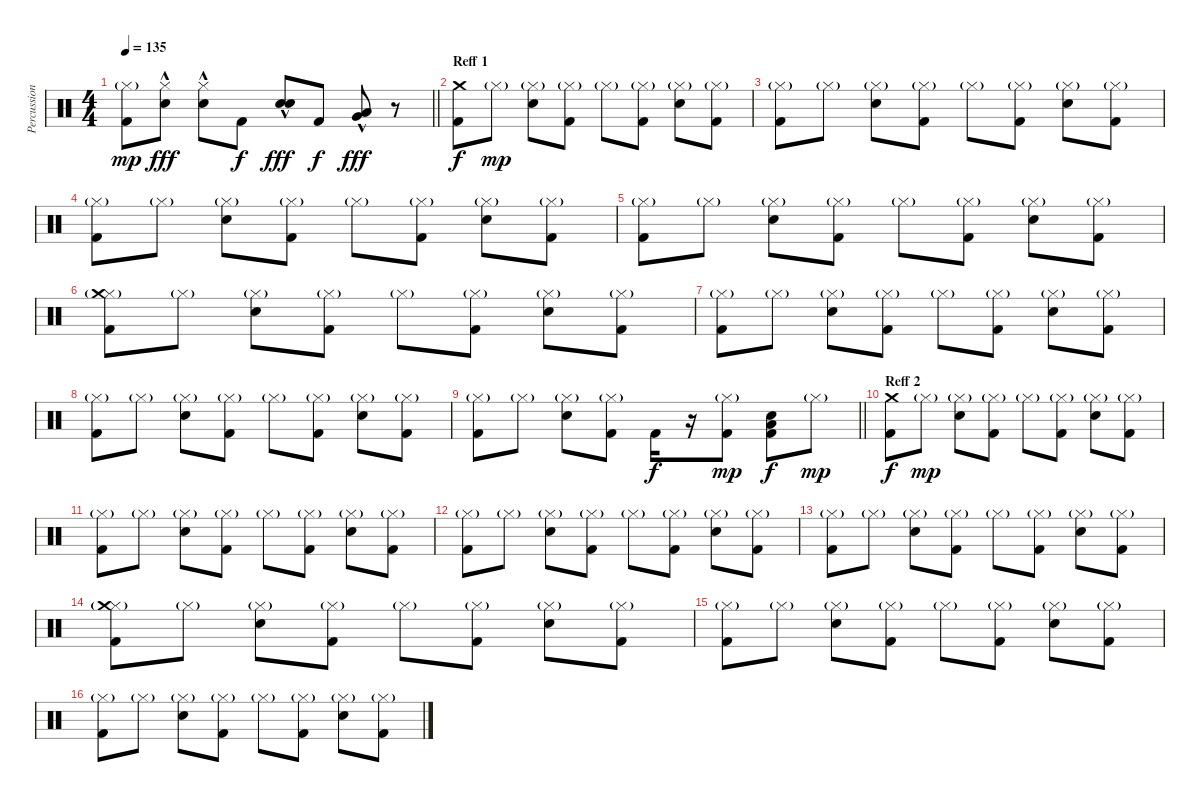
\track ("Percussion 1" "Percussion") {instrument percussion}
\staff {score}
\articulation defaults
\ts (4 4)
\tempo 135
\clef neutral
\barLineRight lightlight
\ks c
("Hi-Hat (closed)"{g} "Kick (hit) 2").8{dy mp} ("Hi-Hat (closed)" "Electric Snare (hit)"{hac}).8{dy fff} ("Hi-Hat (closed)" "Electric Snare (hit)"{hac}).8 "Kick (hit) 2".8{dy f} ("Electric Snare (hit)"{hac} "Electric Snare (hit)"{hac}).8{bd 240 dy fff} "Kick (hit) 2".8{dy f} ("Very Low Tom (hit)"{hac} "Low Tom (hit)"{hac}).8{bd 120 dy fff} r.8 |
\section ("" "Reff 1")
("Crash medium (hit)" "Kick (hit) 2").8{dy f} "Hi-Hat (closed)"{g}.8{dy mp} ("Hi-Hat (closed)"{g} "Electric Snare (hit)").8 ("Hi-Hat (closed)"{g} "Kick (hit) 2").8 "Hi-Hat (closed)"{g}.8 ("Hi-Hat (closed)"{g} "Kick (hit) 2").8 ("Hi-Hat (closed)"{g} "Electric Snare (hit)").8 ("Hi-Hat (closed)"{g} "Kick (hit) 2").8 |
("Hi-Hat (closed)"{g} "Kick (hit) 2").8 "Hi-Hat (closed)"{g}.8 ("Hi-Hat (closed)"{g} "Electric Snare (hit)").8 ("Hi-Hat (closed)"{g} "Kick (hit) 2").8 "Hi-Hat (closed)"{g}.8 ("Hi-Hat (closed)"{g} "Kick (hit) 2").8 ("Hi-Hat (closed)"{g} "Electric Snare (hit)").8 ("Hi-Hat (closed)"{g} "Kick (hit) 2").8 |
("Hi-Hat (closed)"{g} "Kick (hit) 2").8 "Hi-Hat (closed)"{g}.8 ("Hi-Hat (closed)"{g} "Electric Snare (hit)").8 ("Hi-Hat (closed)"{g} "Kick (hit) 2").8 "Hi-Hat (closed)"{g}.8 ("Hi-Hat (closed)"{g} "Kick (hit) 2").8 ("Hi-Hat (closed)"{g} "Electric Snare (hit)").8 ("Hi-Hat (closed)"{g} "Kick (hit) 2").8 |
("Hi-Hat (closed)"{g} "Kick (hit) 2").8 "Hi-Hat (closed)"{g}.8 ("Hi-Hat (closed)"{g} "Electric Snare (hit)").8 ("Hi-Hat (closed)"{g} "Kick (hit) 2").8 "Hi-Hat (closed)"{g}.8 ("Hi-Hat (closed)"{g} "Kick (hit) 2").8 ("Hi-Hat (closed)"{g} "Electric Snare (hit)").8 ("Hi-Hat (closed)"{g} "Kick (hit) 2").8 |
("Hi-Hat (closed)"{g} "Crash medium (hit)" "Kick (hit) 2").8 "Hi-Hat (closed)"{g}.8 ("Hi-Hat (closed)"{g} "Electric Snare (hit)").8 ("Hi-Hat (closed)"{g} "Kick (hit) 2").8 "Hi-Hat (closed)"{g}.8 ("Hi-Hat (closed)"{g} "Kick (hit) 2").8 ("Hi-Hat (closed)"{g} "Electric Snare (hit)").8 ("Hi-Hat (closed)"{g} "Kick (hit) 2").8 |
("Hi-Hat (closed)"{g} "Kick (hit) 2").8 "Hi-Hat (closed)"{g}.8 ("Hi-Hat (closed)"{g} "Electric Snare (hit)").8 ("Hi-Hat (closed)"{g} "Kick (hit) 2").8 "Hi-Hat (closed)"{g}.8 ("Hi-Hat (closed)"{g} "Kick (hit) 2").8 ("Hi-Hat (closed)"{g} "Electric Snare (hit)").8 ("Hi-Hat (closed)"{g} "Kick (hit) 2").8 |
("Hi-Hat (closed)"{g} "Kick (hit) 2").8 "Hi-Hat (closed)"{g}.8 ("Hi-Hat (closed)"{g} "Electric Snare (hit)").8 ("Hi-Hat (closed)"{g} "Kick (hit) 2").8 "Hi-Hat (closed)"{g}.8 ("Hi-Hat (closed)"{g} "Kick (hit) 2").8 ("Hi-Hat (closed)"{g} "Electric Snare (hit)").8 ("Hi-Hat (closed)"{g} "Kick (hit) 2").8 |
\barLineRight lightlight
("Hi-Hat (closed)"{g} "Kick (hit) 2").8 "Hi-Hat (closed)"{g}.8 ("Hi-Hat (closed)"{g} "Electric Snare (hit)").8 ("Hi-Hat (closed)"{g} "Kick (hit) 2").8 "Kick (hit) 2".16{dy f} r.16 ("Hi-Hat (closed)"{g} "Kick (hit) 2").8{dy mp} ("Electric Snare (hit)" "Low Tom (hit)" "Kick (hit) 2").8{dy f} "Hi-Hat (closed)"{g}.8{dy mp} |
\section ("" "Reff 2")
("Crash medium (hit)" "Kick (hit) 2").8{dy f} "Hi-Hat (closed)"{g}.8{dy mp} ("Hi-Hat (closed)"{g} "Electric Snare (hit)").8 ("Hi-Hat (closed)"{g} "Kick (hit) 2").8 "Hi-Hat (closed)"{g}.8 ("Hi-Hat (closed)"{g} "Kick (hit) 2").8 ("Hi-Hat (closed)"{g} "Electric Snare (hit)").8 ("Hi-Hat (closed)"{g} "Kick (hit) 2").8 |
("Hi-Hat (closed)"{g} "Kick (hit) 2").8 "Hi-Hat (closed)"{g}.8 ("Hi-Hat (closed)"{g} "Electric Snare (hit)").8 ("Hi-Hat (closed)"{g} "Kick (hit) 2").8 "Hi-Hat (closed)"{g}.8 ("Hi-Hat (closed)"{g} "Kick (hit) 2").8 ("Hi-Hat (closed)"{g} "Electric Snare (hit)").8 ("Hi-Hat (closed)"{g} "Kick (hit) 2").8 |
("Hi-Hat (closed)"{g} "Kick (hit) 2").8 "Hi-Hat (closed)"{g}.8 ("Hi-Hat (closed)"{g} "Electric Snare (hit)").8 ("Hi-Hat (closed)"{g} "Kick (hit) 2").8 "Hi-Hat (closed)"{g}.8 ("Hi-Hat (closed)"{g} "Kick (hit) 2").8 ("Hi-Hat (closed)"{g} "Electric Snare (hit)").8 ("Hi-Hat (closed)"{g} "Kick (hit) 2").8 |
("Hi-Hat (closed)"{g} "Kick (hit) 2").8 "Hi-Hat (closed)"{g}.8 ("Hi-Hat (closed)"{g} "Electric Snare (hit)").8 ("Hi-Hat (closed)"{g} "Kick (hit) 2").8 "Hi-Hat (closed)"{g}.8 ("Hi-Hat (closed)"{g} "Kick (hit) 2").8 ("Hi-Hat (closed)"{g} "Electric Snare (hit)").8 ("Hi-Hat (closed)"{g} "Kick (hit) 2").8 |
("Hi-Hat (closed)"{g} "Crash medium (hit)" "Kick (hit) 2").8 "Hi-Hat (closed)"{g}.8 ("Hi-Hat (closed)"{g} "Electric Snare (hit)").8 ("Hi-Hat (closed)"{g} "Kick (hit) 2").8 "Hi-Hat (closed)"{g}.8 ("Hi-Hat (closed)"{g} "Kick (hit) 2").8 ("Hi-Hat (closed)"{g} "Electric Snare (hit)").8 ("Hi-Hat (closed)"{g} "Kick (hit) 2").8 |
("Hi-Hat (closed)"{g} "Kick (hit) 2").8 "Hi-Hat (closed)"{g}.8 ("Hi-Hat (closed)"{g} "Electric Snare (hit)").8 ("Hi-Hat (closed)"{g} "Kick (hit) 2").8 "Hi-Hat (closed)"{g}.8 ("Hi-Hat (closed)"{g} "Kick (hit) 2").8 ("Hi-Hat (closed)"{g} "Electric Snare (hit)").8 ("Hi-Hat (closed)"{g} "Kick (hit) 2").8 |
("Hi-Hat (closed)"{g} "Kick (hit) 2").8 "Hi-Hat (closed)"{g}.8 ("Hi-Hat (closed)"{g} "Electric Snare (hit)").8 ("Hi-Hat (closed)"{g} "Kick (hit) 2").8 "Hi-Hat (closed)"{g}.8 ("Hi-Hat (closed)"{g} "Kick (hit) 2").8 ("Hi-Hat (closed)"{g} "Electric Snare (hit)").8 ("Hi-Hat (closed)"{g} "Kick (hit) 2").8
